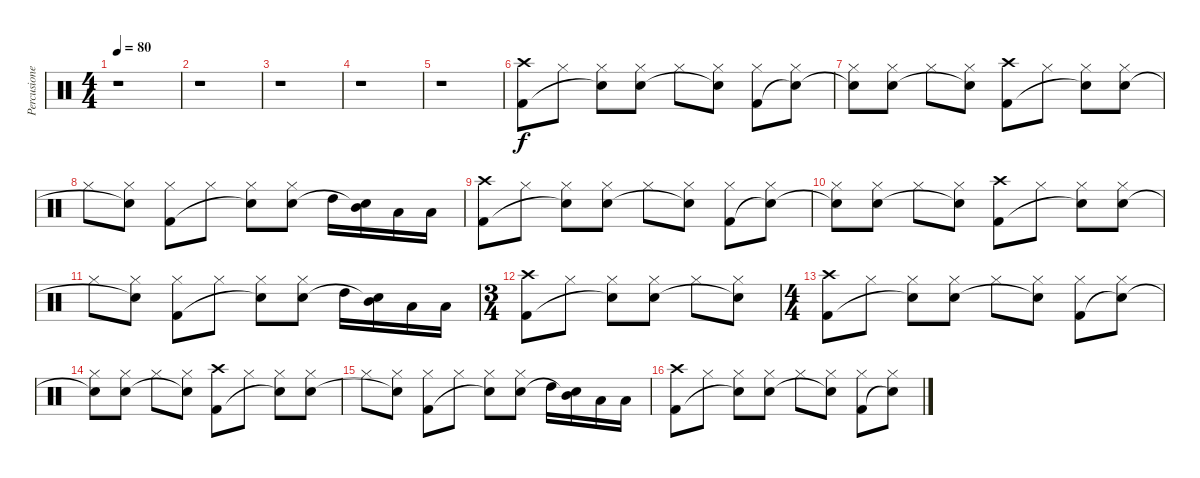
\track ("Percusiones" "Percusione") {instrument percussion}
\staff {score}
\articulation defaults
\ts (4 4)
\tempo 80
\clef neutral
\ks c
r.1{dy f} |
r.1 |
r.1 |
r.1 |
r.1 |
("Crash high (hit)" "Kick (hit) 2").8 "Hi-Hat (closed)".8 ("Hi-Hat (closed)" "Snare (hit)"{t}).8 ("Hi-Hat (closed)" "Electric Snare (hit)").8 "Hi-Hat (closed)".8 ("Hi-Hat (closed)" "Snare (hit)"{t}).8 ("Hi-Hat (closed)" "Kick (hit) 2").8 ("Hi-Hat (closed)" "Snare (hit)"{t}).8 |
("Hi-Hat (closed)" "Snare (hit)"{t}).8 ("Hi-Hat (closed)" "Electric Snare (hit)").8 "Hi-Hat (closed)".8 ("Hi-Hat (closed)" "Snare (hit)"{t}).8 ("Crash high (hit)" "Kick (hit) 2").8 "Hi-Hat (closed)".8 ("Hi-Hat (closed)" "Snare (hit)"{t}).8 ("Hi-Hat (closed)" "Electric Snare (hit)").8 |
"Hi-Hat (closed)".8 ("Hi-Hat (closed)" "Snare (hit)"{t}).8 ("Hi-Hat (closed)" "Kick (hit) 2").8 "Hi-Hat (closed)".8 ("Hi-Hat (closed)" "Snare (hit)"{t}).8 ("Hi-Hat (closed)" "Electric Snare (hit)").8 "High Tom (hit)".16 ("Mid Tom (hit)" "Snare (hit)"{t}).16 "Low Tom (hit)".16 "Low Tom (hit)".16 |
("Crash high (hit)" "Kick (hit) 2").8 "Hi-Hat (closed)".8 ("Hi-Hat (closed)" "Snare (hit)"{t}).8 ("Hi-Hat (closed)" "Electric Snare (hit)").8 "Hi-Hat (closed)".8 ("Hi-Hat (closed)" "Snare (hit)"{t}).8 ("Hi-Hat (closed)" "Kick (hit) 2").8 ("Hi-Hat (closed)" "Snare (hit)"{t}).8 |
("Hi-Hat (closed)" "Snare (hit)"{t}).8 ("Hi-Hat (closed)" "Electric Snare (hit)").8 "Hi-Hat (closed)".8 ("Hi-Hat (closed)" "Snare (hit)"{t}).8 ("Crash high (hit)" "Kick (hit) 2").8 "Hi-Hat (closed)".8 ("Hi-Hat (closed)" "Snare (hit)"{t}).8 ("Hi-Hat (closed)" "Electric Snare (hit)").8 |
"Hi-Hat (closed)".8 ("Hi-Hat (closed)" "Snare (hit)"{t}).8 ("Hi-Hat (closed)" "Kick (hit) 2").8 "Hi-Hat (closed)".8 ("Hi-Hat (closed)" "Snare (hit)"{t}).8 ("Hi-Hat (closed)" "Electric Snare (hit)").8 "High Tom (hit)".16 ("Mid Tom (hit)" "Snare (hit)"{t}).16 "Low Tom (hit)".16 "Low Tom (hit)".16 |
\ts (3 4)
("Crash high (hit)" "Kick (hit) 2").8 "Hi-Hat (closed)".8 ("Hi-Hat (closed)" "Snare (hit)"{t}).8 ("Hi-Hat (closed)" "Electric Snare (hit)").8 "Hi-Hat (closed)".8 ("Hi-Hat (closed)" "Snare (hit)"{t}).8 |
\ts (4 4)
("Crash high (hit)" "Kick (hit) 2").8 "Hi-Hat (closed)".8 ("Hi-Hat (closed)" "Snare (hit)"{t}).8 ("Hi-Hat (closed)" "Electric Snare (hit)").8 "Hi-Hat (closed)".8 ("Hi-Hat (closed)" "Snare (hit)"{t}).8 ("Hi-Hat (closed)" "Kick (hit) 2").8 ("Hi-Hat (closed)" "Snare (hit)"{t}).8 |
("Hi-Hat (closed)" "Snare (hit)"{t}).8 ("Hi-Hat (closed)" "Electric Snare (hit)").8 "Hi-Hat (closed)".8 ("Hi-Hat (closed)" "Snare (hit)"{t}).8 ("Crash high (hit)" "Kick (hit) 2").8 "Hi-Hat (closed)".8 ("Hi-Hat (closed)" "Snare (hit)"{t}).8 ("Hi-Hat (closed)" "Electric Snare (hit)").8 |
"Hi-Hat (closed)".8 ("Hi-Hat (closed)" "Snare (hit)"{t}).8 ("Hi-Hat (closed)" "Kick (hit) 2").8 "Hi-Hat (closed)".8 ("Hi-Hat (closed)" "Snare (hit)"{t}).8 ("Hi-Hat (closed)" "Electric Snare (hit)").8 "High Tom (hit)".16 ("Mid Tom (hit)" "Snare (hit)"{t}).16 "Low Tom (hit)".16 "Low Tom (hit)".16 |
("Crash high (hit)" "Kick (hit) 2").8 "Hi-Hat (closed)".8 ("Hi-Hat (closed)" "Snare (hit)"{t}).8 ("Hi-Hat (closed)" "Electric Snare (hit)").8 "Hi-Hat (closed)".8 ("Hi-Hat (closed)" "Snare (hit)"{t}).8 ("Hi-Hat (closed)" "Kick (hit) 2").8 ("Hi-Hat (closed)" "Snare (hit)"{t}).8
